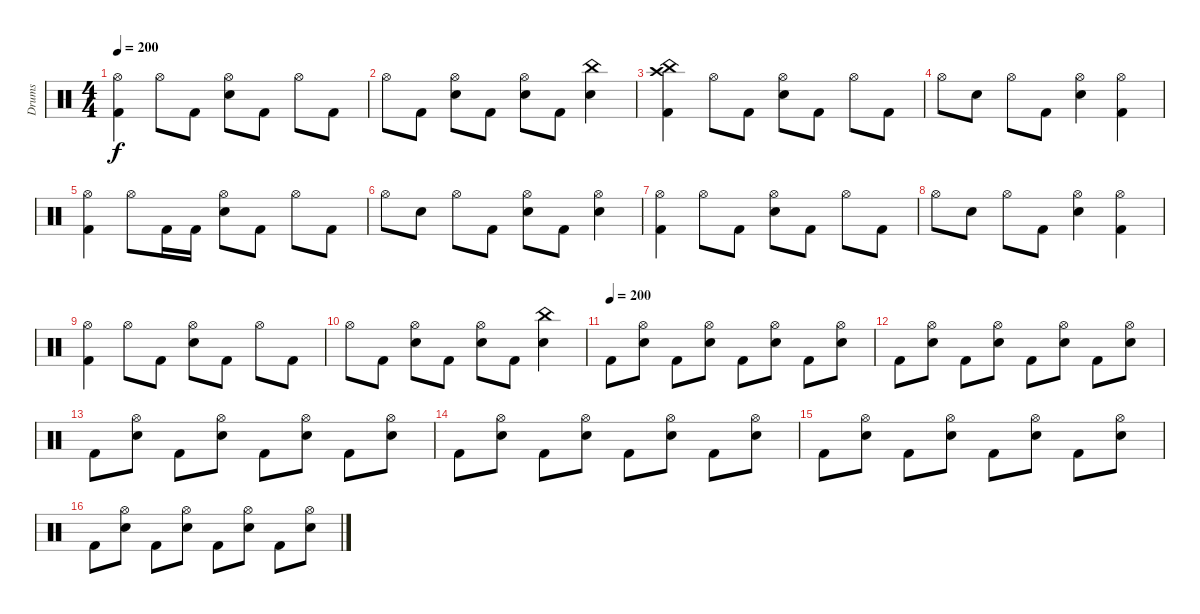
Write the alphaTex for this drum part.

\track ("Drums" "Drums") {instrument percussion}
\staff {score}
\articulation defaults
\ts (4 4)
\tempo 200
\clef neutral
\ks c
("Hi-Hat (open)" "Kick (hit) 2").4{dy f} "Hi-Hat (open)".8 "Kick (hit) 2".8 ("Hi-Hat (open)" "Electric Snare (hit)").8 "Kick (hit) 2".8 "Hi-Hat (open)".8 "Kick (hit) 2".8 |
"Hi-Hat (open)".8 "Kick (hit) 2".8 ("Hi-Hat (open)" "Electric Snare (hit)").8 "Kick (hit) 2".8 ("Hi-Hat (open)" "Electric Snare (hit)").8 "Kick (hit) 2".8 ("China (hit)" "Electric Snare (hit)").4 |
("China (hit)" "Crash high (hit)" "Kick (hit) 2").4 "Hi-Hat (open)".8 "Kick (hit) 2".8 ("Hi-Hat (open)" "Electric Snare (hit)").8 "Kick (hit) 2".8 "Hi-Hat (open)".8 "Kick (hit) 2".8 |
"Hi-Hat (open)".8 "Electric Snare (hit)".8 "Hi-Hat (open)".8 "Kick (hit) 2".8 ("Hi-Hat (open)" "Electric Snare (hit)").4 ("Hi-Hat (open)" "Kick (hit) 2").4 |
("Hi-Hat (open)" "Kick (hit) 2").4 "Hi-Hat (open)".8 "Kick (hit) 2".16 "Kick (hit) 2".16 ("Hi-Hat (open)" "Electric Snare (hit)").8 "Kick (hit) 2".8 "Hi-Hat (open)".8 "Kick (hit) 2".8 |
"Hi-Hat (open)".8 "Electric Snare (hit)".8 "Hi-Hat (open)".8 "Kick (hit) 2".8 ("Hi-Hat (open)" "Electric Snare (hit)").8 "Kick (hit) 2".8 ("Hi-Hat (open)" "Electric Snare (hit)").4 |
("Hi-Hat (open)" "Kick (hit) 2").4 "Hi-Hat (open)".8 "Kick (hit) 2".8 ("Hi-Hat (open)" "Electric Snare (hit)").8 "Kick (hit) 2".8 "Hi-Hat (open)".8 "Kick (hit) 2".8 |
"Hi-Hat (open)".8 "Electric Snare (hit)".8 "Hi-Hat (open)".8 "Kick (hit) 2".8 ("Hi-Hat (open)" "Electric Snare (hit)").4 ("Hi-Hat (open)" "Kick (hit) 2").4 |
("Hi-Hat (open)" "Kick (hit) 2").4 "Hi-Hat (open)".8 "Kick (hit) 2".8 ("Hi-Hat (open)" "Electric Snare (hit)").8 "Kick (hit) 2".8 "Hi-Hat (open)".8 "Kick (hit) 2".8 |
"Hi-Hat (open)".8 "Kick (hit) 2".8 ("Hi-Hat (open)" "Electric Snare (hit)").8 "Kick (hit) 2".8 ("Hi-Hat (open)" "Electric Snare (hit)").8 "Kick (hit) 2".8 ("China (hit)" "Electric Snare (hit)").4 |
\tempo (200)
"Kick (hit) 2".8 ("Hi-Hat (open)" "Electric Snare (hit)").8 "Kick (hit) 2".8 ("Hi-Hat (open)" "Electric Snare (hit)").8 "Kick (hit) 2".8 ("Hi-Hat (open)" "Electric Snare (hit)").8 "Kick (hit) 2".8 ("Hi-Hat (open)" "Electric Snare (hit)").8 |
"Kick (hit) 2".8 ("Hi-Hat (open)" "Electric Snare (hit)").8 "Kick (hit) 2".8 ("Hi-Hat (open)" "Electric Snare (hit)").8 "Kick (hit) 2".8 ("Hi-Hat (open)" "Electric Snare (hit)").8 "Kick (hit) 2".8 ("Hi-Hat (open)" "Electric Snare (hit)").8 |
"Kick (hit) 2".8 ("Hi-Hat (open)" "Electric Snare (hit)").8 "Kick (hit) 2".8 ("Hi-Hat (open)" "Electric Snare (hit)").8 "Kick (hit) 2".8 ("Hi-Hat (open)" "Electric Snare (hit)").8 "Kick (hit) 2".8 ("Hi-Hat (open)" "Electric Snare (hit)").8 |
"Kick (hit) 2".8 ("Hi-Hat (open)" "Electric Snare (hit)").8 "Kick (hit) 2".8 ("Hi-Hat (open)" "Electric Snare (hit)").8 "Kick (hit) 2".8 ("Hi-Hat (open)" "Electric Snare (hit)").8 "Kick (hit) 2".8 ("Hi-Hat (open)" "Electric Snare (hit)").8 |
"Kick (hit) 2".8 ("Hi-Hat (open)" "Electric Snare (hit)").8 "Kick (hit) 2".8 ("Hi-Hat (open)" "Electric Snare (hit)").8 "Kick (hit) 2".8 ("Hi-Hat (open)" "Electric Snare (hit)").8 "Kick (hit) 2".8 ("Hi-Hat (open)" "Electric Snare (hit)").8 |
"Kick (hit) 2".8 ("Hi-Hat (open)" "Electric Snare (hit)").8 "Kick (hit) 2".8 ("Hi-Hat (open)" "Electric Snare (hit)").8 "Kick (hit) 2".8 ("Hi-Hat (open)" "Electric Snare (hit)").8 "Kick (hit) 2".8 ("Hi-Hat (open)" "Electric Snare (hit)").8
